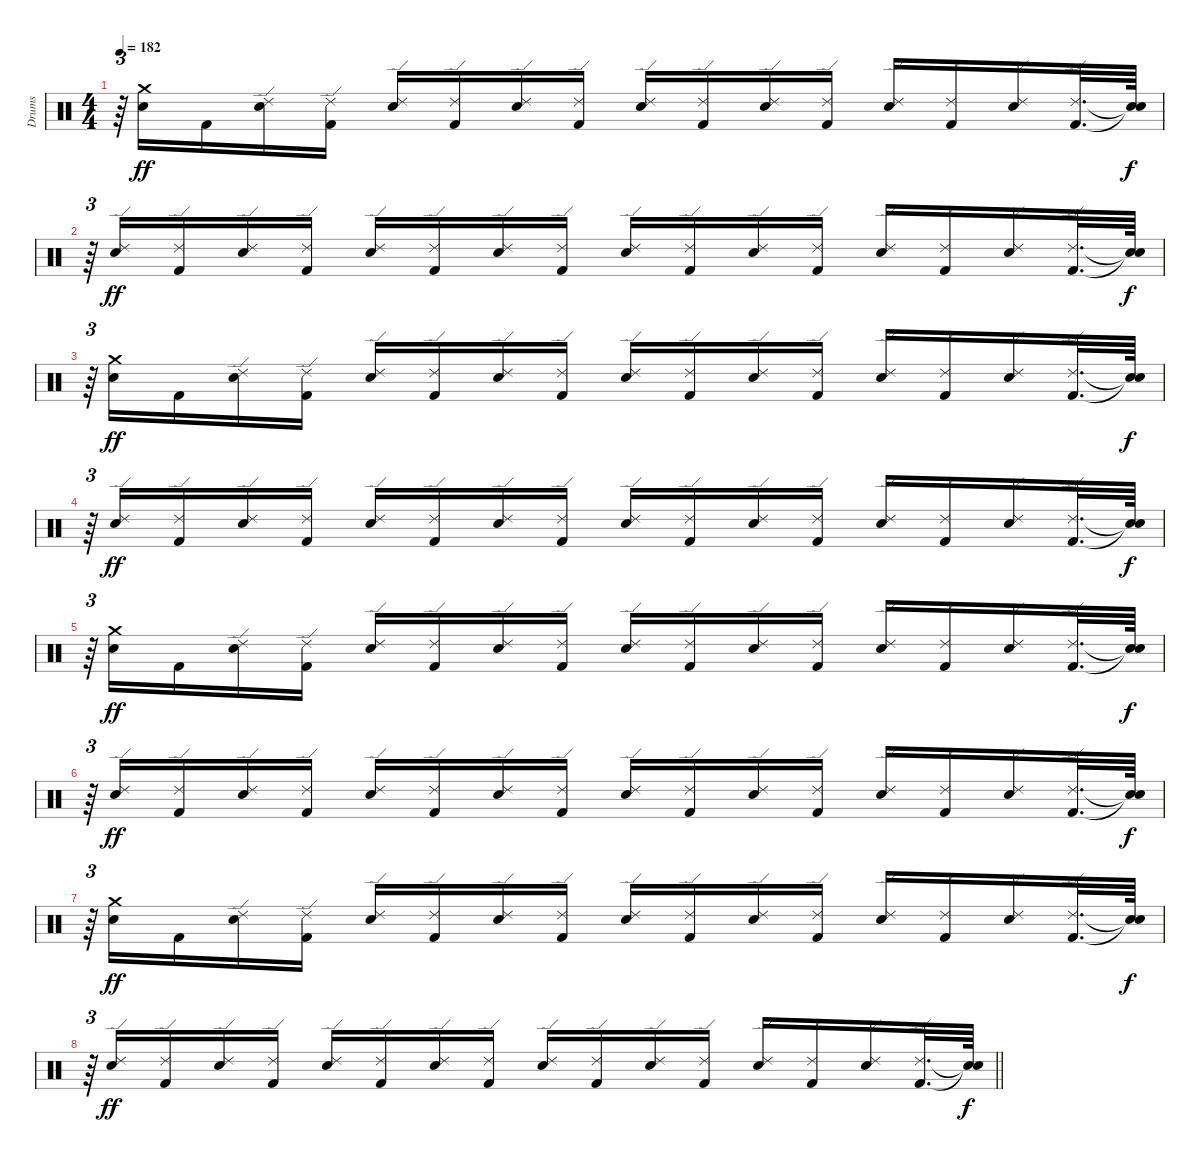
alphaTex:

\track ("Drums" "Drums") {instrument percussion}
\staff {score}
\articulation defaults
\ts (4 4)
\tempo 182
\clef neutral
\ks c
r.64{tu (3 2) dy f} ("Crash medium (hit)" "Snare (hit) 2").16{dy ff} "Kick (hit) 2".16 ("Snare (hit) 2" "Ride (edge) 2").16 ("Kick (hit) 2" "Ride (edge) 2").16 ("Snare (hit) 2" "Ride (edge) 2").16 ("Kick (hit) 2" "Ride (edge) 2").16 ("Snare (hit) 2" "Ride (edge) 2").16 ("Kick (hit) 2" "Ride (edge) 2").16 ("Snare (hit) 2" "Ride (edge) 2").16 ("Kick (hit) 2" "Ride (edge) 2").16 ("Snare (hit) 2" "Ride (edge) 2").16 ("Kick (hit) 2" "Ride (edge) 2").16 ("Snare (hit) 2" "Ride (edge) 2").16 ("Kick (hit) 2" "Ride (edge) 2").16 ("Snare (hit) 2" "Ride (edge) 2").16 ("Kick (hit) 2" "Ride (edge) 2").32{d} ("Snare (hit)"{t} "Snare (hit)"{t}).64{dy f} |
r.64{tu (3 2)} ("Snare (hit) 2" "Ride (edge) 2").16{dy ff} ("Kick (hit) 2" "Ride (edge) 2").16 ("Snare (hit) 2" "Ride (edge) 2").16 ("Kick (hit) 2" "Ride (edge) 2").16 ("Snare (hit) 2" "Ride (edge) 2").16 ("Kick (hit) 2" "Ride (edge) 2").16 ("Snare (hit) 2" "Ride (edge) 2").16 ("Kick (hit) 2" "Ride (edge) 2").16 ("Snare (hit) 2" "Ride (edge) 2").16 ("Kick (hit) 2" "Ride (edge) 2").16 ("Snare (hit) 2" "Ride (edge) 2").16 ("Kick (hit) 2" "Ride (edge) 2").16 ("Snare (hit) 2" "Ride (edge) 2").16 ("Kick (hit) 2" "Ride (edge) 2").16 ("Snare (hit) 2" "Ride (edge) 2").16 ("Kick (hit) 2" "Ride (edge) 2").32{d} ("Snare (hit)"{t} "Snare (hit)"{t}).64{dy f} |
r.64{tu (3 2)} ("Crash medium (hit)" "Snare (hit) 2").16{dy ff} "Kick (hit) 2".16 ("Snare (hit) 2" "Ride (edge) 2").16 ("Kick (hit) 2" "Ride (edge) 2").16 ("Snare (hit) 2" "Ride (edge) 2").16 ("Kick (hit) 2" "Ride (edge) 2").16 ("Snare (hit) 2" "Ride (edge) 2").16 ("Kick (hit) 2" "Ride (edge) 2").16 ("Snare (hit) 2" "Ride (edge) 2").16 ("Kick (hit) 2" "Ride (edge) 2").16 ("Snare (hit) 2" "Ride (edge) 2").16 ("Kick (hit) 2" "Ride (edge) 2").16 ("Snare (hit) 2" "Ride (edge) 2").16 ("Kick (hit) 2" "Ride (edge) 2").16 ("Snare (hit) 2" "Ride (edge) 2").16 ("Kick (hit) 2" "Ride (edge) 2").32{d} ("Snare (hit)"{t} "Snare (hit)"{t}).64{dy f} |
r.64{tu (3 2)} ("Snare (hit) 2" "Ride (edge) 2").16{dy ff} ("Kick (hit) 2" "Ride (edge) 2").16 ("Snare (hit) 2" "Ride (edge) 2").16 ("Kick (hit) 2" "Ride (edge) 2").16 ("Snare (hit) 2" "Ride (edge) 2").16 ("Kick (hit) 2" "Ride (edge) 2").16 ("Snare (hit) 2" "Ride (edge) 2").16 ("Kick (hit) 2" "Ride (edge) 2").16 ("Snare (hit) 2" "Ride (edge) 2").16 ("Kick (hit) 2" "Ride (edge) 2").16 ("Snare (hit) 2" "Ride (edge) 2").16 ("Kick (hit) 2" "Ride (edge) 2").16 ("Snare (hit) 2" "Ride (edge) 2").16 ("Kick (hit) 2" "Ride (edge) 2").16 ("Snare (hit) 2" "Ride (edge) 2").16 ("Kick (hit) 2" "Ride (edge) 2").32{d} ("Snare (hit)"{t} "Snare (hit)"{t}).64{dy f} |
r.64{tu (3 2)} ("Crash medium (hit)" "Snare (hit) 2").16{dy ff} "Kick (hit) 2".16 ("Snare (hit) 2" "Ride (edge) 2").16 ("Kick (hit) 2" "Ride (edge) 2").16 ("Snare (hit) 2" "Ride (edge) 2").16 ("Kick (hit) 2" "Ride (edge) 2").16 ("Snare (hit) 2" "Ride (edge) 2").16 ("Kick (hit) 2" "Ride (edge) 2").16 ("Snare (hit) 2" "Ride (edge) 2").16 ("Kick (hit) 2" "Ride (edge) 2").16 ("Snare (hit) 2" "Ride (edge) 2").16 ("Kick (hit) 2" "Ride (edge) 2").16 ("Snare (hit) 2" "Ride (edge) 2").16 ("Kick (hit) 2" "Ride (edge) 2").16 ("Snare (hit) 2" "Ride (edge) 2").16 ("Kick (hit) 2" "Ride (edge) 2").32{d} ("Snare (hit)"{t} "Snare (hit)"{t}).64{dy f} |
r.64{tu (3 2)} ("Snare (hit) 2" "Ride (edge) 2").16{dy ff} ("Kick (hit) 2" "Ride (edge) 2").16 ("Snare (hit) 2" "Ride (edge) 2").16 ("Kick (hit) 2" "Ride (edge) 2").16 ("Snare (hit) 2" "Ride (edge) 2").16 ("Kick (hit) 2" "Ride (edge) 2").16 ("Snare (hit) 2" "Ride (edge) 2").16 ("Kick (hit) 2" "Ride (edge) 2").16 ("Snare (hit) 2" "Ride (edge) 2").16 ("Kick (hit) 2" "Ride (edge) 2").16 ("Snare (hit) 2" "Ride (edge) 2").16 ("Kick (hit) 2" "Ride (edge) 2").16 ("Snare (hit) 2" "Ride (edge) 2").16 ("Kick (hit) 2" "Ride (edge) 2").16 ("Snare (hit) 2" "Ride (edge) 2").16 ("Kick (hit) 2" "Ride (edge) 2").32{d} ("Snare (hit)"{t} "Snare (hit)"{t}).64{dy f} |
r.64{tu (3 2)} ("Crash medium (hit)" "Snare (hit) 2").16{dy ff} "Kick (hit) 2".16 ("Snare (hit) 2" "Ride (edge) 2").16 ("Kick (hit) 2" "Ride (edge) 2").16 ("Snare (hit) 2" "Ride (edge) 2").16 ("Kick (hit) 2" "Ride (edge) 2").16 ("Snare (hit) 2" "Ride (edge) 2").16 ("Kick (hit) 2" "Ride (edge) 2").16 ("Snare (hit) 2" "Ride (edge) 2").16 ("Kick (hit) 2" "Ride (edge) 2").16 ("Snare (hit) 2" "Ride (edge) 2").16 ("Kick (hit) 2" "Ride (edge) 2").16 ("Snare (hit) 2" "Ride (edge) 2").16 ("Kick (hit) 2" "Ride (edge) 2").16 ("Snare (hit) 2" "Ride (edge) 2").16 ("Kick (hit) 2" "Ride (edge) 2").32{d} ("Snare (hit)"{t} "Snare (hit)"{t}).64{dy f} |
\barLineRight lightlight
r.64{tu (3 2)} ("Snare (hit) 2" "Ride (edge) 2").16{dy ff} ("Kick (hit) 2" "Ride (edge) 2").16 ("Snare (hit) 2" "Ride (edge) 2").16 ("Kick (hit) 2" "Ride (edge) 2").16 ("Snare (hit) 2" "Ride (edge) 2").16 ("Kick (hit) 2" "Ride (edge) 2").16 ("Snare (hit) 2" "Ride (edge) 2").16 ("Kick (hit) 2" "Ride (edge) 2").16 ("Snare (hit) 2" "Ride (edge) 2").16 ("Kick (hit) 2" "Ride (edge) 2").16 ("Snare (hit) 2" "Ride (edge) 2").16 ("Kick (hit) 2" "Ride (edge) 2").16 ("Snare (hit) 2" "Ride (edge) 2").16 ("Kick (hit) 2" "Ride (edge) 2").16 ("Snare (hit) 2" "Ride (edge) 2").16 ("Kick (hit) 2" "Ride (edge) 2").32{d} ("Snare (hit)"{t} "Snare (hit)"{t}).64{dy f}
